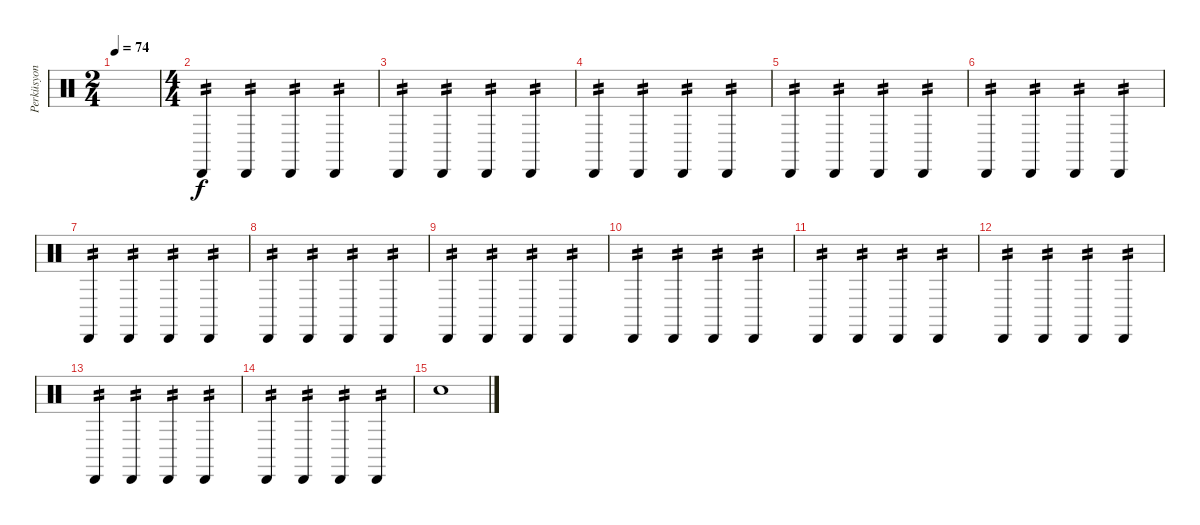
\track ("Perküsyon" "Perküsyon") {instrument percussion}
\staff {score}
\articulation defaults
\ts (2 4)
\tempo 74
\clef neutral
\ks c
|
\ts (4 4)
"Cabasa (hit)".4{tp 2 volume 13} "Cabasa (hit)".4{tp 2} "Cabasa (hit)".4{tp 2} "Cabasa (hit)".4{tp 2} |
"Cabasa (hit)".4{tp 2} "Cabasa (hit)".4{tp 2} "Cabasa (hit)".4{tp 2} "Cabasa (hit)".4{tp 2} |
"Cabasa (hit)".4{tp 2} "Cabasa (hit)".4{tp 2} "Cabasa (hit)".4{tp 2} "Cabasa (hit)".4{tp 2} |
"Cabasa (hit)".4{tp 2} "Cabasa (hit)".4{tp 2} "Cabasa (hit)".4{tp 2} "Cabasa (hit)".4{tp 2} |
"Cabasa (hit)".4{tp 2} "Cabasa (hit)".4{tp 2} "Cabasa (hit)".4{tp 2} "Cabasa (hit)".4{tp 2} |
"Cabasa (hit)".4{tp 2} "Cabasa (hit)".4{tp 2} "Cabasa (hit)".4{tp 2} "Cabasa (hit)".4{tp 2} |
"Cabasa (hit)".4{tp 2} "Cabasa (hit)".4{tp 2} "Cabasa (hit)".4{tp 2} "Cabasa (hit)".4{tp 2} |
"Cabasa (hit)".4{tp 2} "Cabasa (hit)".4{tp 2} "Cabasa (hit)".4{tp 2} "Cabasa (hit)".4{tp 2} |
"Cabasa (hit)".4{tp 2} "Cabasa (hit)".4{tp 2} "Cabasa (hit)".4{tp 2} "Cabasa (hit)".4{tp 2} |
"Cabasa (hit)".4{tp 2} "Cabasa (hit)".4{tp 2} "Cabasa (hit)".4{tp 2} "Cabasa (hit)".4{tp 2} |
"Cabasa (hit)".4{tp 2} "Cabasa (hit)".4{tp 2} "Cabasa (hit)".4{tp 2} "Cabasa (hit)".4{tp 2} |
"Cabasa (hit)".4{tp 2} "Cabasa (hit)".4{tp 2} "Cabasa (hit)".4{tp 2} "Cabasa (hit)".4{tp 2} |
"Cabasa (hit)".4{tp 2} "Cabasa (hit)".4{tp 2} "Cabasa (hit)".4{tp 2} "Cabasa (hit)".4{tp 2} |
"Electric Snare (hit)".1
